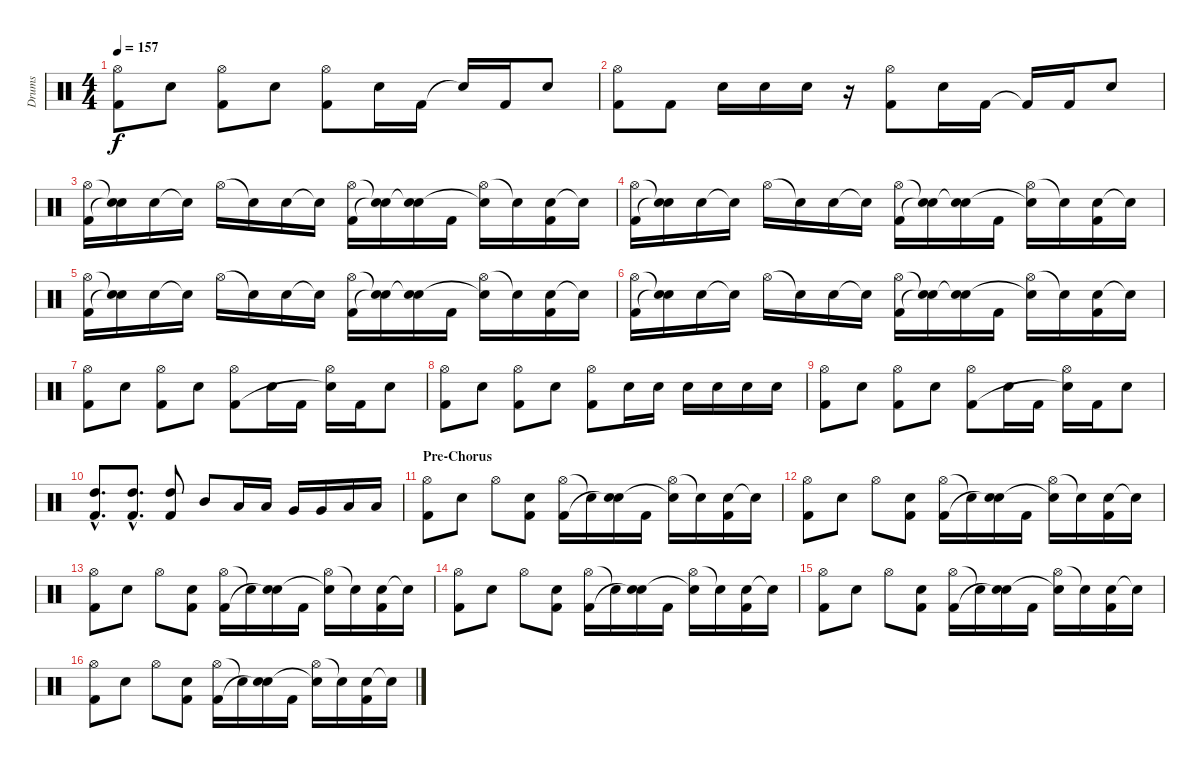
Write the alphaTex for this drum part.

\track ("Drums" "Drums") {instrument percussion}
\staff {score}
\articulation defaults
\ts (4 4)
\tempo 157
\clef neutral
\ks c
("Hi-Hat (open)" "Kick (hit) 2").8{dy f} "Electric Snare (hit)".8 ("Hi-Hat (open)" "Kick (hit) 2").8 "Electric Snare (hit)".8 ("Hi-Hat (open)" "Kick (hit) 2").8 "Electric Snare (hit)".16 "Kick (hit) 2".16 "Snare (hit)"{t}.16 "Kick (hit) 2".16 "Electric Snare (hit)".8 |
("Hi-Hat (open)" "Kick (hit) 2").8 "Kick (hit) 2".8 "Electric Snare (hit)".16 "Electric Snare (hit)".16 "Electric Snare (hit)".16 r.16 ("Hi-Hat (open)" "Kick (hit) 2").8 "Electric Snare (hit)".16 "Kick (hit) 2".16 "Kick (hit) 2"{t}.16 "Kick (hit) 2".16 "Electric Snare (hit)".8 |
("Hi-Hat (open)" "Kick (hit) 2").16 ("Snare (hit)"{t} "Snare (hit)"{t}).16 "Electric Snare (hit)".16 "Snare (hit)"{t}.16 "Hi-Hat (open)".16 "Snare (hit)"{t}.16 "Electric Snare (hit)".16 "Snare (hit)"{t}.16 ("Hi-Hat (open)" "Kick (hit) 2").16 ("Snare (hit)"{t} "Snare (hit)"{t}).16 ("Electric Snare (hit)" "Snare (hit)"{t}).16 "Kick (hit) 2".16 ("Hi-Hat (open)" "Snare (hit)"{t}).16 "Snare (hit)"{t}.16 ("Electric Snare (hit)" "Kick (hit) 2").16 "Snare (hit)"{t}.16 |
("Hi-Hat (open)" "Kick (hit) 2").16 ("Snare (hit)"{t} "Snare (hit)"{t}).16 "Electric Snare (hit)".16 "Snare (hit)"{t}.16 "Hi-Hat (open)".16 "Snare (hit)"{t}.16 "Electric Snare (hit)".16 "Snare (hit)"{t}.16 ("Hi-Hat (open)" "Kick (hit) 2").16 ("Snare (hit)"{t} "Snare (hit)"{t}).16 ("Electric Snare (hit)" "Snare (hit)"{t}).16 "Kick (hit) 2".16 ("Hi-Hat (open)" "Snare (hit)"{t}).16 "Snare (hit)"{t}.16 ("Electric Snare (hit)" "Kick (hit) 2").16 "Snare (hit)"{t}.16 |
("Hi-Hat (open)" "Kick (hit) 2").16 ("Snare (hit)"{t} "Snare (hit)"{t}).16 "Electric Snare (hit)".16 "Snare (hit)"{t}.16 "Hi-Hat (open)".16 "Snare (hit)"{t}.16 "Electric Snare (hit)".16 "Snare (hit)"{t}.16 ("Hi-Hat (open)" "Kick (hit) 2").16 ("Snare (hit)"{t} "Snare (hit)"{t}).16 ("Electric Snare (hit)" "Snare (hit)"{t}).16 "Kick (hit) 2".16 ("Hi-Hat (open)" "Snare (hit)"{t}).16 "Snare (hit)"{t}.16 ("Electric Snare (hit)" "Kick (hit) 2").16 "Snare (hit)"{t}.16 |
("Hi-Hat (open)" "Kick (hit) 2").16 ("Snare (hit)"{t} "Snare (hit)"{t}).16 "Electric Snare (hit)".16 "Snare (hit)"{t}.16 "Hi-Hat (open)".16 "Snare (hit)"{t}.16 "Electric Snare (hit)".16 "Snare (hit)"{t}.16 ("Hi-Hat (open)" "Kick (hit) 2").16 ("Snare (hit)"{t} "Snare (hit)"{t}).16 ("Electric Snare (hit)" "Snare (hit)"{t}).16 "Kick (hit) 2".16 ("Hi-Hat (open)" "Snare (hit)"{t}).16 "Snare (hit)"{t}.16 ("Electric Snare (hit)" "Kick (hit) 2").16 "Snare (hit)"{t}.16 |
("Hi-Hat (open)" "Kick (hit) 2").8 "Electric Snare (hit)".8 ("Hi-Hat (open)" "Kick (hit) 2").8 "Electric Snare (hit)".8 ("Hi-Hat (open)" "Kick (hit) 2").8 "Electric Snare (hit)".16 "Kick (hit) 2".16 ("Hi-Hat (open)" "Snare (hit)"{t}).16 "Kick (hit) 2".16 "Electric Snare (hit)".8 |
("Hi-Hat (open)" "Kick (hit) 2").8 "Electric Snare (hit)".8 ("Hi-Hat (open)" "Kick (hit) 2").8 "Electric Snare (hit)".8 ("Hi-Hat (open)" "Kick (hit) 2").8 "Electric Snare (hit)".16 "Electric Snare (hit)".16 "Electric Snare (hit)".16 "Electric Snare (hit)".16 "Electric Snare (hit)".16 "Electric Snare (hit)".16 |
("Hi-Hat (open)" "Kick (hit) 2").8 "Electric Snare (hit)".8 ("Hi-Hat (open)" "Kick (hit) 2").8 "Electric Snare (hit)".8 ("Hi-Hat (open)" "Kick (hit) 2").8 "Electric Snare (hit)".16 "Kick (hit) 2".16 ("Hi-Hat (open)" "Snare (hit)"{t}).16 "Kick (hit) 2".16 "Electric Snare (hit)".8 |
("High Tom (hit)"{hac} "Kick (hit) 2"{hac}).8{d} ("High Tom (hit)"{hac} "Kick (hit) 2"{hac}).8{d} ("High Tom (hit)" "Kick (hit) 2").8 "Mid Tom (hit)".8 "Low Tom (hit)".16 "Low Tom (hit)".16 "Very Low Tom (hit)".16 "Very Low Tom (hit)".16 "Low Floor Tom (hit)".16 "Low Floor Tom (hit)".16 |
\section ("" "Pre-Chorus")
("Hi-Hat (open)" "Kick (hit) 2").8 "Electric Snare (hit)".8 "Hi-Hat (open)".8 ("Electric Snare (hit)" "Kick (hit) 2").8 ("Hi-Hat (open)" "Kick (hit) 2").16 "Snare (hit)"{t}.16 ("Electric Snare (hit)" "Snare (hit)"{t}).16 "Kick (hit) 2".16 ("Hi-Hat (open)" "Snare (hit)"{t}).16 "Snare (hit)"{t}.16 ("Electric Snare (hit)" "Kick (hit) 2").16 "Snare (hit)"{t}.16 |
("Hi-Hat (open)" "Kick (hit) 2").8 "Electric Snare (hit)".8 "Hi-Hat (open)".8 ("Electric Snare (hit)" "Kick (hit) 2").8 ("Hi-Hat (open)" "Kick (hit) 2").16 "Snare (hit)"{t}.16 ("Electric Snare (hit)" "Snare (hit)"{t}).16 "Kick (hit) 2".16 ("Hi-Hat (open)" "Snare (hit)"{t}).16 "Snare (hit)"{t}.16 ("Electric Snare (hit)" "Kick (hit) 2").16 "Snare (hit)"{t}.16 |
("Hi-Hat (open)" "Kick (hit) 2").8 "Electric Snare (hit)".8 "Hi-Hat (open)".8 ("Electric Snare (hit)" "Kick (hit) 2").8 ("Hi-Hat (open)" "Kick (hit) 2").16 "Snare (hit)"{t}.16 ("Electric Snare (hit)" "Snare (hit)"{t}).16 "Kick (hit) 2".16 ("Hi-Hat (open)" "Snare (hit)"{t}).16 "Snare (hit)"{t}.16 ("Electric Snare (hit)" "Kick (hit) 2").16 "Snare (hit)"{t}.16 |
("Hi-Hat (open)" "Kick (hit) 2").8 "Electric Snare (hit)".8 "Hi-Hat (open)".8 ("Electric Snare (hit)" "Kick (hit) 2").8 ("Hi-Hat (open)" "Kick (hit) 2").16 "Snare (hit)"{t}.16 ("Electric Snare (hit)" "Snare (hit)"{t}).16 "Kick (hit) 2".16 ("Hi-Hat (open)" "Snare (hit)"{t}).16 "Snare (hit)"{t}.16 ("Electric Snare (hit)" "Kick (hit) 2").16 "Snare (hit)"{t}.16 |
("Hi-Hat (open)" "Kick (hit) 2").8 "Electric Snare (hit)".8 "Hi-Hat (open)".8 ("Electric Snare (hit)" "Kick (hit) 2").8 ("Hi-Hat (open)" "Kick (hit) 2").16 "Snare (hit)"{t}.16 ("Electric Snare (hit)" "Snare (hit)"{t}).16 "Kick (hit) 2".16 ("Hi-Hat (open)" "Snare (hit)"{t}).16 "Snare (hit)"{t}.16 ("Electric Snare (hit)" "Kick (hit) 2").16 "Snare (hit)"{t}.16 |
("Hi-Hat (open)" "Kick (hit) 2").8 "Electric Snare (hit)".8 "Hi-Hat (open)".8 ("Electric Snare (hit)" "Kick (hit) 2").8 ("Hi-Hat (open)" "Kick (hit) 2").16 "Snare (hit)"{t}.16 ("Electric Snare (hit)" "Snare (hit)"{t}).16 "Kick (hit) 2".16 ("Hi-Hat (open)" "Snare (hit)"{t}).16 "Snare (hit)"{t}.16 ("Electric Snare (hit)" "Kick (hit) 2").16 "Snare (hit)"{t}.16
